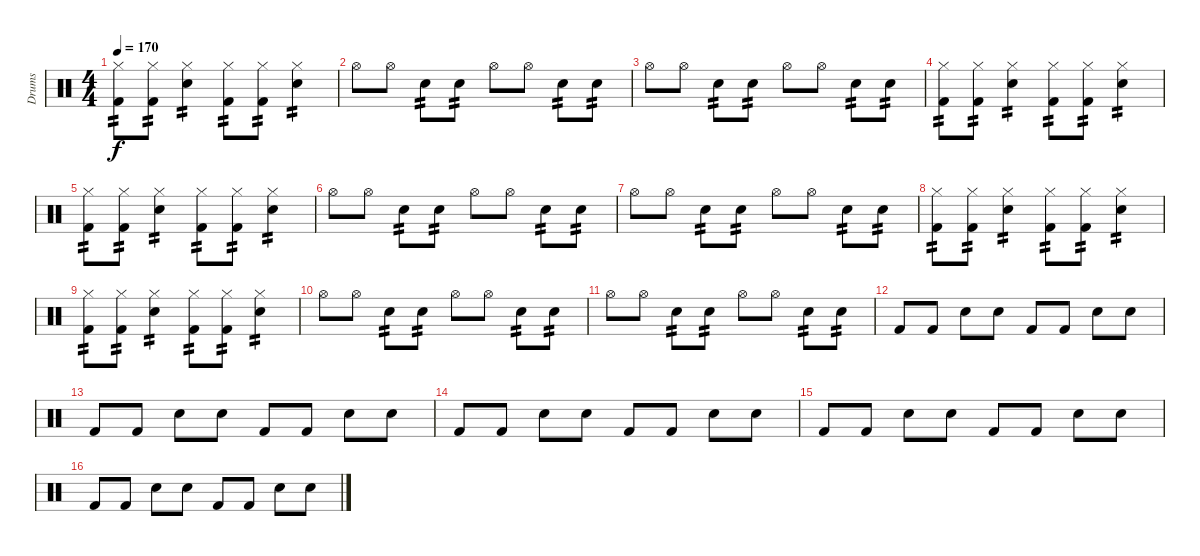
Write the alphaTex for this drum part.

\track ("Drums" "Drums") {instrument percussion}
\staff {score}
\articulation defaults
\ts (4 4)
\tempo 170
\clef neutral
\ks c
("Kick (hit) 2" "Hi-Hat (closed)").8{tp 2 dy f} ("Kick (hit) 2" "Hi-Hat (closed)").8{tp 2} ("Snare (hit) 2" "Hi-Hat (closed)").4{tp 2} ("Kick (hit) 2" "Hi-Hat (closed)").8{tp 2} ("Kick (hit) 2" "Hi-Hat (closed)").8{tp 2} ("Snare (hit) 2" "Hi-Hat (closed)").4{tp 2} |
"Hi-Hat (open)".8 "Hi-Hat (open)".8 "Snare (hit) 2".8{tp 2} "Snare (hit) 2".8{tp 2} "Hi-Hat (open)".8 "Hi-Hat (open)".8 "Snare (hit) 2".8{tp 2} "Snare (hit) 2".8{tp 2} |
"Hi-Hat (open)".8 "Hi-Hat (open)".8 "Snare (hit) 2".8{tp 2} "Snare (hit) 2".8{tp 2} "Hi-Hat (open)".8 "Hi-Hat (open)".8 "Snare (hit) 2".8{tp 2} "Snare (hit) 2".8{tp 2} |
("Kick (hit) 2" "Hi-Hat (closed)").8{tp 2} ("Kick (hit) 2" "Hi-Hat (closed)").8{tp 2} ("Snare (hit) 2" "Hi-Hat (closed)").4{tp 2} ("Kick (hit) 2" "Hi-Hat (closed)").8{tp 2} ("Kick (hit) 2" "Hi-Hat (closed)").8{tp 2} ("Snare (hit) 2" "Hi-Hat (closed)").4{tp 2} |
("Kick (hit) 2" "Hi-Hat (closed)").8{tp 2} ("Kick (hit) 2" "Hi-Hat (closed)").8{tp 2} ("Snare (hit) 2" "Hi-Hat (closed)").4{tp 2} ("Kick (hit) 2" "Hi-Hat (closed)").8{tp 2} ("Kick (hit) 2" "Hi-Hat (closed)").8{tp 2} ("Snare (hit) 2" "Hi-Hat (closed)").4{tp 2} |
"Hi-Hat (open)".8 "Hi-Hat (open)".8 "Snare (hit) 2".8{tp 2} "Snare (hit) 2".8{tp 2} "Hi-Hat (open)".8 "Hi-Hat (open)".8 "Snare (hit) 2".8{tp 2} "Snare (hit) 2".8{tp 2} |
"Hi-Hat (open)".8 "Hi-Hat (open)".8 "Snare (hit) 2".8{tp 2} "Snare (hit) 2".8{tp 2} "Hi-Hat (open)".8 "Hi-Hat (open)".8 "Snare (hit) 2".8{tp 2} "Snare (hit) 2".8{tp 2} |
("Kick (hit) 2" "Hi-Hat (closed)").8{tp 2} ("Kick (hit) 2" "Hi-Hat (closed)").8{tp 2} ("Snare (hit) 2" "Hi-Hat (closed)").4{tp 2} ("Kick (hit) 2" "Hi-Hat (closed)").8{tp 2} ("Kick (hit) 2" "Hi-Hat (closed)").8{tp 2} ("Snare (hit) 2" "Hi-Hat (closed)").4{tp 2} |
("Kick (hit) 2" "Hi-Hat (closed)").8{tp 2} ("Kick (hit) 2" "Hi-Hat (closed)").8{tp 2} ("Snare (hit) 2" "Hi-Hat (closed)").4{tp 2} ("Kick (hit) 2" "Hi-Hat (closed)").8{tp 2} ("Kick (hit) 2" "Hi-Hat (closed)").8{tp 2} ("Snare (hit) 2" "Hi-Hat (closed)").4{tp 2} |
"Hi-Hat (open)".8 "Hi-Hat (open)".8 "Snare (hit) 2".8{tp 2} "Snare (hit) 2".8{tp 2} "Hi-Hat (open)".8 "Hi-Hat (open)".8 "Snare (hit) 2".8{tp 2} "Snare (hit) 2".8{tp 2} |
"Hi-Hat (open)".8 "Hi-Hat (open)".8 "Snare (hit) 2".8{tp 2} "Snare (hit) 2".8{tp 2} "Hi-Hat (open)".8 "Hi-Hat (open)".8 "Snare (hit) 2".8{tp 2} "Snare (hit) 2".8{tp 2} |
"Kick (hit) 2".8 "Kick (hit) 2".8 "Snare (hit) 2".8 "Snare (hit) 2".8 "Kick (hit) 2".8 "Kick (hit) 2".8 "Snare (hit) 2".8 "Snare (hit) 2".8 |
"Kick (hit) 2".8 "Kick (hit) 2".8 "Snare (hit) 2".8 "Snare (hit) 2".8 "Kick (hit) 2".8 "Kick (hit) 2".8 "Snare (hit) 2".8 "Snare (hit) 2".8 |
"Kick (hit) 2".8 "Kick (hit) 2".8 "Snare (hit) 2".8 "Snare (hit) 2".8 "Kick (hit) 2".8 "Kick (hit) 2".8 "Snare (hit) 2".8 "Snare (hit) 2".8 |
"Kick (hit) 2".8 "Kick (hit) 2".8 "Snare (hit) 2".8 "Snare (hit) 2".8 "Kick (hit) 2".8 "Kick (hit) 2".8 "Snare (hit) 2".8 "Snare (hit) 2".8 |
"Kick (hit) 2".8 "Kick (hit) 2".8 "Snare (hit) 2".8 "Snare (hit) 2".8 "Kick (hit) 2".8 "Kick (hit) 2".8 "Snare (hit) 2".8 "Snare (hit) 2".8
